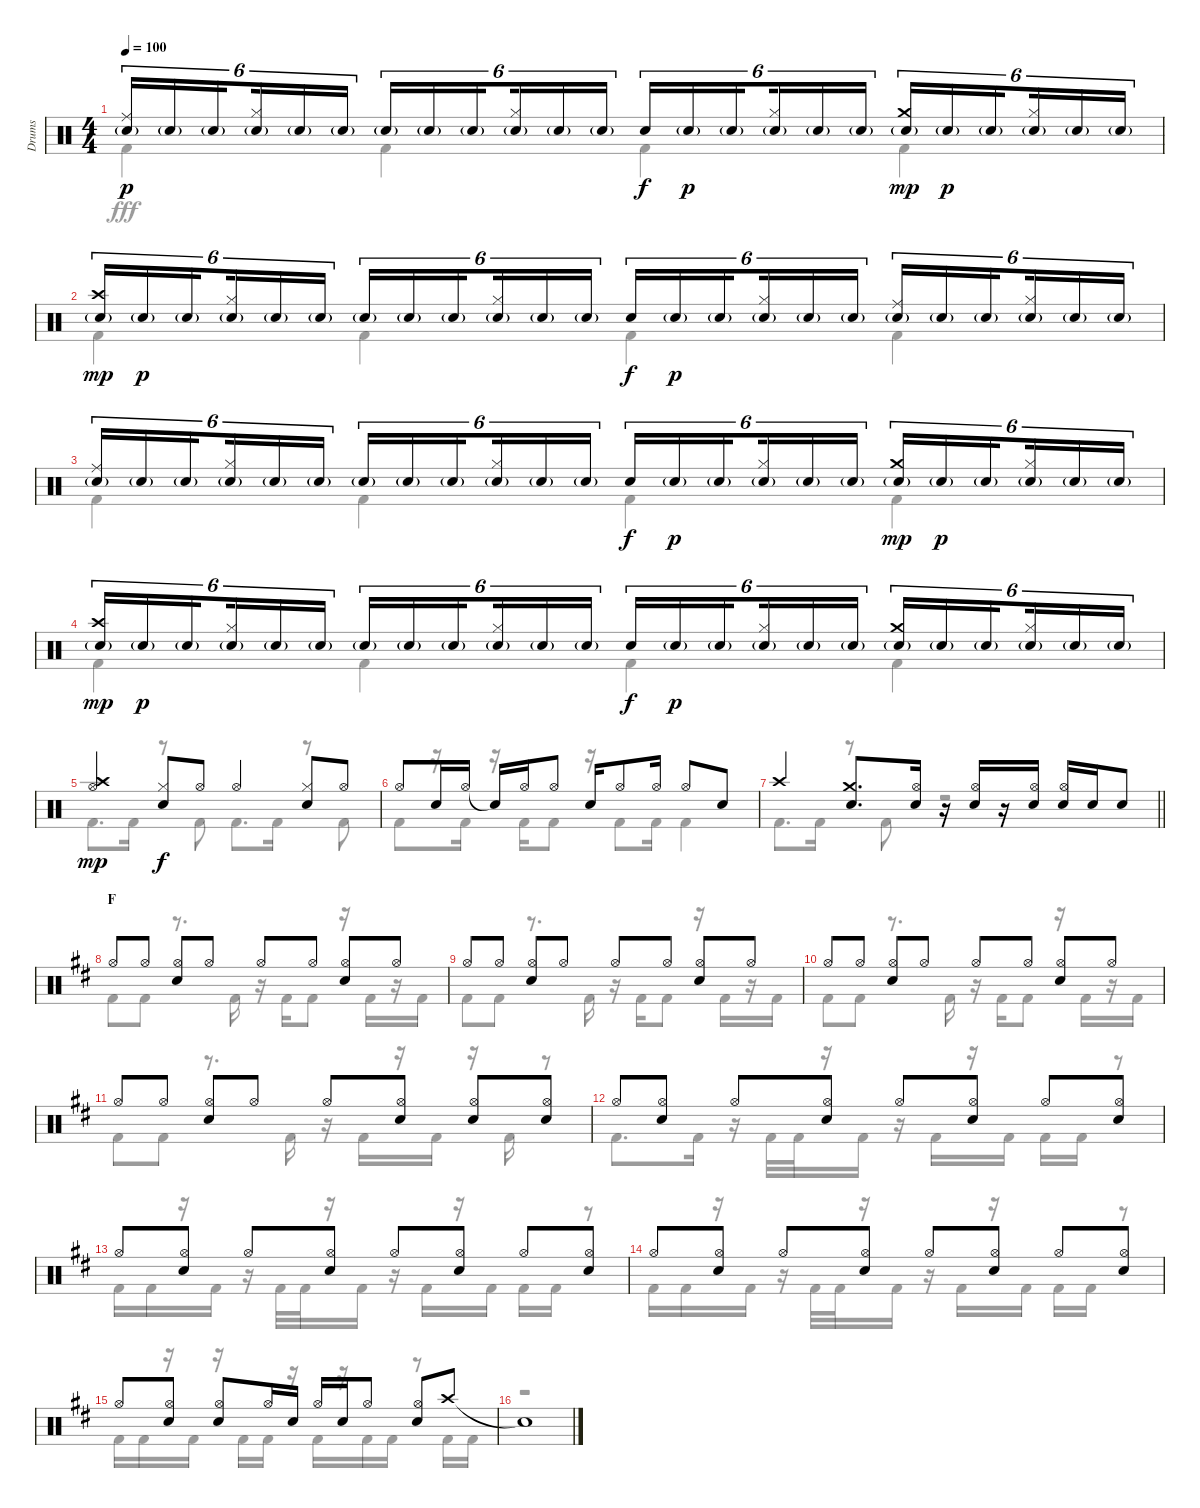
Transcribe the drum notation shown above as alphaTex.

\track ("Drums" "Drums") {instrument percussion}
\staff {score}
\articulation defaults
\voice
\ts (4 4)
\tempo 100
\clef neutral
\ks c
("Snare (hit) 2"{g} "Ride (middle)").16{tu (6 4) dy p} "Snare (hit) 2"{g}.16{tu (6 4)} "Snare (hit) 2"{g}.16{tu (6 4) beam splitsecondary} ("Snare (hit) 2"{g} "Hi-Hat (closed)").16{tu (6 4)} "Snare (hit) 2"{g}.16{tu (6 4)} "Snare (hit) 2"{g}.16{tu (6 4)} "Snare (hit) 2"{g}.16{tu (6 4)} "Snare (hit) 2"{g}.16{tu (6 4)} "Snare (hit) 2"{g}.16{tu (6 4) beam splitsecondary} ("Snare (hit) 2"{g} "Hi-Hat (closed)").16{tu (6 4)} "Snare (hit) 2"{g}.16{tu (6 4)} "Snare (hit) 2"{g}.16{tu (6 4)} "Snare (hit) 2".16{tu (6 4) dy f} "Snare (hit) 2"{g}.16{tu (6 4) dy p} "Snare (hit) 2"{g}.16{tu (6 4) beam splitsecondary} ("Snare (hit) 2"{g} "Hi-Hat (closed)").16{tu (6 4)} "Snare (hit) 2"{g}.16{tu (6 4)} "Snare (hit) 2"{g}.16{tu (6 4)} ("Snare (hit) 2"{g} "Crash medium (hit)").16{tu (6 4) dy mp} "Snare (hit) 2"{g}.16{tu (6 4) dy p} "Snare (hit) 2"{g}.16{tu (6 4) beam splitsecondary} ("Snare (hit) 2"{g} "Hi-Hat (closed)").16{tu (6 4)} "Snare (hit) 2"{g}.16{tu (6 4)} "Snare (hit) 2"{g}.16{tu (6 4)} |
("Snare (hit) 2"{g} "Crash high (hit)").16{tu (6 4) dy mp} "Snare (hit) 2"{g}.16{tu (6 4) dy p} "Snare (hit) 2"{g}.16{tu (6 4) beam splitsecondary} ("Snare (hit) 2"{g} "Hi-Hat (closed)").16{tu (6 4)} "Snare (hit) 2"{g}.16{tu (6 4)} "Snare (hit) 2"{g}.16{tu (6 4)} "Snare (hit) 2"{g}.16{tu (6 4)} "Snare (hit) 2"{g}.16{tu (6 4)} "Snare (hit) 2"{g}.16{tu (6 4) beam splitsecondary} ("Snare (hit) 2"{g} "Hi-Hat (closed)").16{tu (6 4)} "Snare (hit) 2"{g}.16{tu (6 4)} "Snare (hit) 2"{g}.16{tu (6 4)} "Snare (hit) 2".16{tu (6 4) dy f} "Snare (hit) 2"{g}.16{tu (6 4) dy p} "Snare (hit) 2"{g}.16{tu (6 4) beam splitsecondary} ("Snare (hit) 2"{g} "Hi-Hat (closed)").16{tu (6 4)} "Snare (hit) 2"{g}.16{tu (6 4)} "Snare (hit) 2"{g}.16{tu (6 4)} ("Snare (hit) 2"{g} "Ride (middle)").16{tu (6 4)} "Snare (hit) 2"{g}.16{tu (6 4)} "Snare (hit) 2"{g}.16{tu (6 4) beam splitsecondary} ("Snare (hit) 2"{g} "Hi-Hat (closed)").16{tu (6 4)} "Snare (hit) 2"{g}.16{tu (6 4)} "Snare (hit) 2"{g}.16{tu (6 4)} |
("Snare (hit) 2"{g} "Ride (middle)").16{tu (6 4)} "Snare (hit) 2"{g}.16{tu (6 4)} "Snare (hit) 2"{g}.16{tu (6 4) beam splitsecondary} ("Snare (hit) 2"{g} "Hi-Hat (closed)").16{tu (6 4)} "Snare (hit) 2"{g}.16{tu (6 4)} "Snare (hit) 2"{g}.16{tu (6 4)} "Snare (hit) 2"{g}.16{tu (6 4)} "Snare (hit) 2"{g}.16{tu (6 4)} "Snare (hit) 2"{g}.16{tu (6 4) beam splitsecondary} ("Snare (hit) 2"{g} "Hi-Hat (closed)").16{tu (6 4)} "Snare (hit) 2"{g}.16{tu (6 4)} "Snare (hit) 2"{g}.16{tu (6 4)} "Snare (hit) 2".16{tu (6 4) dy f} "Snare (hit) 2"{g}.16{tu (6 4) dy p} "Snare (hit) 2"{g}.16{tu (6 4) beam splitsecondary} ("Snare (hit) 2"{g} "Hi-Hat (closed)").16{tu (6 4)} "Snare (hit) 2"{g}.16{tu (6 4)} "Snare (hit) 2"{g}.16{tu (6 4)} ("Snare (hit) 2"{g} "Crash medium (hit)").16{tu (6 4) dy mp} "Snare (hit) 2"{g}.16{tu (6 4) dy p} "Snare (hit) 2"{g}.16{tu (6 4) beam splitsecondary} ("Snare (hit) 2"{g} "Hi-Hat (closed)").16{tu (6 4)} "Snare (hit) 2"{g}.16{tu (6 4)} "Snare (hit) 2"{g}.16{tu (6 4)} |
("Snare (hit) 2"{g} "Crash high (hit)").16{tu (6 4) dy mp} "Snare (hit) 2"{g}.16{tu (6 4) dy p} "Snare (hit) 2"{g}.16{tu (6 4) beam splitsecondary} ("Snare (hit) 2"{g} "Hi-Hat (closed)").16{tu (6 4)} "Snare (hit) 2"{g}.16{tu (6 4)} "Snare (hit) 2"{g}.16{tu (6 4)} "Snare (hit) 2"{g}.16{tu (6 4)} "Snare (hit) 2"{g}.16{tu (6 4)} "Snare (hit) 2"{g}.16{tu (6 4) beam splitsecondary} ("Snare (hit) 2"{g} "Hi-Hat (closed)").16{tu (6 4)} "Snare (hit) 2"{g}.16{tu (6 4)} "Snare (hit) 2"{g}.16{tu (6 4)} "Snare (hit) 2".16{tu (6 4) dy f} "Snare (hit) 2"{g}.16{tu (6 4) dy p} "Snare (hit) 2"{g}.16{tu (6 4) beam splitsecondary} ("Snare (hit) 2"{g} "Hi-Hat (closed)").16{tu (6 4)} "Snare (hit) 2"{g}.16{tu (6 4)} "Snare (hit) 2"{g}.16{tu (6 4)} ("Snare (hit) 2"{g} "Crash medium (hit)").16{tu (6 4)} "Snare (hit) 2"{g}.16{tu (6 4)} "Snare (hit) 2"{g}.16{tu (6 4) beam splitsecondary} ("Snare (hit) 2"{g} "Hi-Hat (closed)").16{tu (6 4)} "Snare (hit) 2"{g}.16{tu (6 4)} "Snare (hit) 2"{g}.16{tu (6 4)} |
("Crash high (hit)" "Hi-Hat (open)").4{dy mp} ("Hi-Hat (closed)" "Snare (hit) 2").8{dy f} "Hi-Hat (open)".8 "Hi-Hat (open)".4 ("Hi-Hat (closed)" "Snare (hit) 2").8 "Hi-Hat (open)".8 |
"Hi-Hat (open)".8 "Snare (hit) 2".16 "Hi-Hat (open)".16 "Snare (hit)"{t}.16 "Hi-Hat (open)".16 "Hi-Hat (open)".8 "Snare (hit) 2".16 "Hi-Hat (open)".8 "Hi-Hat (open)".16 "Hi-Hat (open)".8 "Snare (hit) 2".8 |
\barLineRight lightlight "Crash high (hit)".4
("Crash medium (hit)" "Snare (hit) 2").8{d} ("Hi-Hat (open)" "Snare (hit) 2").16 r.16 ("Hi-Hat (open)" "Snare (hit) 2").16 r.16 ("Hi-Hat (open)" "Snare (hit) 2").16 ("Hi-Hat (open)" "Snare (hit) 2").16 "Snare (hit) 2".16 "Snare (hit) 2".8 |
\section ("" "F")
\ks d "Hi-Hat (open)".8 "Hi-Hat (open)".8
("Hi-Hat (open)" "Snare (hit) 2").8 "Hi-Hat (open)".8 "Hi-Hat (open)".8 "Hi-Hat (open)".8 ("Hi-Hat (open)" "Snare (hit) 2").8 "Hi-Hat (open)".8 |
"Hi-Hat (open)".8 "Hi-Hat (open)".8 ("Hi-Hat (open)" "Snare (hit) 2").8 "Hi-Hat (open)".8 "Hi-Hat (open)".8 "Hi-Hat (open)".8 ("Hi-Hat (open)" "Snare (hit) 2").8 "Hi-Hat (open)".8 |
"Hi-Hat (open)".8 "Hi-Hat (open)".8 ("Hi-Hat (open)" "Snare (hit) 2").8 "Hi-Hat (open)".8 "Hi-Hat (open)".8 "Hi-Hat (open)".8 ("Hi-Hat (open)" "Snare (hit) 2").8 "Hi-Hat (open)".8 |
"Hi-Hat (open)".8 "Hi-Hat (open)".8 ("Hi-Hat (open)" "Snare (hit) 2").8 "Hi-Hat (open)".8 "Hi-Hat (open)".8 ("Hi-Hat (open)" "Snare (hit) 2").8 ("Hi-Hat (open)" "Snare (hit) 2").8 ("Hi-Hat (open)" "Snare (hit) 2").8 |
"Hi-Hat (open)".8 ("Hi-Hat (open)" "Snare (hit) 2").8 "Hi-Hat (open)".8 ("Hi-Hat (open)" "Snare (hit) 2").8 "Hi-Hat (open)".8 ("Hi-Hat (open)" "Snare (hit) 2").8 "Hi-Hat (open)".8 ("Hi-Hat (open)" "Snare (hit) 2").8 |
"Hi-Hat (open)".8 ("Hi-Hat (open)" "Snare (hit) 2").8 "Hi-Hat (open)".8 ("Hi-Hat (open)" "Snare (hit) 2").8 "Hi-Hat (open)".8 ("Hi-Hat (open)" "Snare (hit) 2").8 "Hi-Hat (open)".8 ("Hi-Hat (open)" "Snare (hit) 2").8 |
"Hi-Hat (open)".8 ("Hi-Hat (open)" "Snare (hit) 2").8 "Hi-Hat (open)".8 ("Hi-Hat (open)" "Snare (hit) 2").8 "Hi-Hat (open)".8 ("Hi-Hat (open)" "Snare (hit) 2").8 "Hi-Hat (open)".8 ("Hi-Hat (open)" "Snare (hit) 2").8 |
"Hi-Hat (open)".8 ("Hi-Hat (open)" "Snare (hit) 2").8 ("Hi-Hat (open)" "Snare (hit) 2").8 "Hi-Hat (open)".16 "Snare (hit) 2".16 "Hi-Hat (open)".16 "Snare (hit) 2".16 "Hi-Hat (open)".8 ("Hi-Hat (open)" "Snare (hit) 2").8 "Crash high (hit)".8 |
"Snare (hit)"{t}.1
\voice
\clef neutral
\ottava regular
\simile none
\ks c "Kick (hit) 2".4{dy fff} "Kick (hit) 2".4 "Kick (hit) 2".4 "Kick (hit) 2".4
|
"Kick (hit) 2".4 "Kick (hit) 2".4 "Kick (hit) 2".4 "Kick (hit) 2".4 |
"Kick (hit) 2".4 "Kick (hit) 2".4 "Kick (hit) 2".4 "Kick (hit) 2".4 |
"Kick (hit) 2".4 "Kick (hit) 2".4 "Kick (hit) 2".4 "Kick (hit) 2".4 |
"Kick (hit) 2".8{d} "Kick (hit) 2".16 r.8 "Kick (hit) 2".8 "Kick (hit) 2".8{d} "Kick (hit) 2".16 r.8 "Kick (hit) 2".8 |
"Kick (hit) 2".8 r.16 "Kick (hit) 2".16 r.16 "Kick (hit) 2".16 "Kick (hit) 2".8 r.16 "Kick (hit) 2".8 "Kick (hit) 2".16 "Kick (hit) 2".4 |
\barLineRight lightlight "Kick (hit) 2".8{d} "Kick (hit) 2".16
r.8 "Kick (hit) 2".8 r.2 |
\ks d "Kick (hit) 2".8 "Kick (hit) 2".8
r.8{d} "Kick (hit) 2".16 r.16 "Kick (hit) 2".16 "Kick (hit) 2".8 r.16 "Kick (hit) 2".16 r.16 "Kick (hit) 2".16 |
"Kick (hit) 2".8 "Kick (hit) 2".8 r.8{d} "Kick (hit) 2".16 r.16 "Kick (hit) 2".16 "Kick (hit) 2".8 r.16 "Kick (hit) 2".16 r.16 "Kick (hit) 2".16 |
"Kick (hit) 2".8 "Kick (hit) 2".8 r.8{d} "Kick (hit) 2".16 r.16 "Kick (hit) 2".16 "Kick (hit) 2".8 r.16 "Kick (hit) 2".16 r.16 "Kick (hit) 2".16 |
"Kick (hit) 2".8 "Kick (hit) 2".8 r.8{d} "Kick (hit) 2".16 r.16 "Kick (hit) 2".16 r.16 "Kick (hit) 2".16 r.16 "Kick (hit) 2".16 r.8 |
"Kick (hit) 2".8{d} "Kick (hit) 2".16 r.16 "Kick (hit) 2".32 "Kick (hit) 2".32 r.16 "Kick (hit) 2".16 r.16 "Kick (hit) 2".16 r.16 "Kick (hit) 2".16 "Kick (hit) 2".16 "Kick (hit) 2".16 r.8 |
"Kick (hit) 2".16 "Kick (hit) 2".16 r.16 "Kick (hit) 2".16 r.16 "Kick (hit) 2".32 "Kick (hit) 2".32 r.16 "Kick (hit) 2".16 r.16 "Kick (hit) 2".16 r.16 "Kick (hit) 2".16 "Kick (hit) 2".16 "Kick (hit) 2".16 r.8 |
"Kick (hit) 2".16 "Kick (hit) 2".16 r.16 "Kick (hit) 2".16 r.16 "Kick (hit) 2".32 "Kick (hit) 2".32 r.16 "Kick (hit) 2".16 r.16 "Kick (hit) 2".16 r.16 "Kick (hit) 2".16 "Kick (hit) 2".16 "Kick (hit) 2".16 r.8 |
"Kick (hit) 2".16 "Kick (hit) 2".16 r.16 "Kick (hit) 2".16 r.16 "Kick (hit) 2".16 "Kick (hit) 2".16 r.16 "Kick (hit) 2".16 r.16 "Kick (hit) 2".16 "Kick (hit) 2".16 r.8 "Kick (hit) 2".16 "Kick (hit) 2".16 |
r.1
